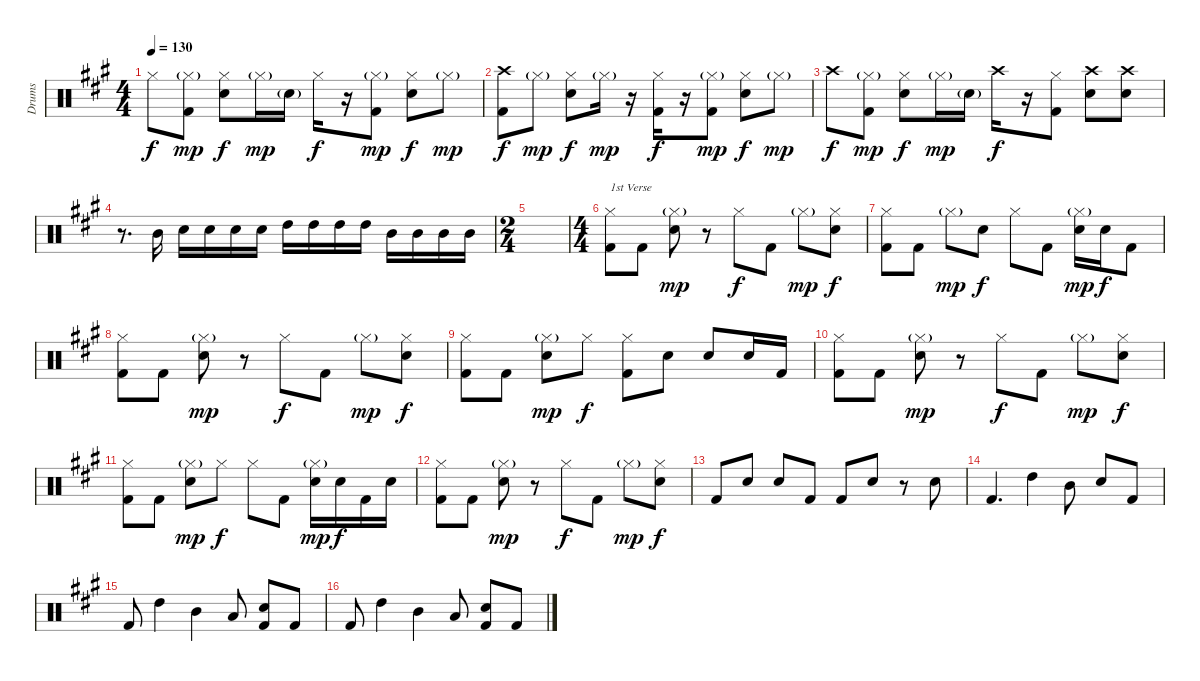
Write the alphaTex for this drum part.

\track ("Drums" "Drums") {instrument percussion}
\staff {score}
\articulation defaults
\ts (4 4)
\tempo 130
\clef neutral
\ks a "Hi-Hat (closed)".8{dy f}
("Hi-Hat (closed)"{g} "Kick (hit) 2").8{dy mp} ("Hi-Hat (closed)" "Electric Snare (hit)").8{dy f} "Hi-Hat (closed)"{g}.16{dy mp} "Electric Snare (hit)"{g}.16 "Hi-Hat (closed)".16{dy f} r.16 ("Hi-Hat (closed)"{g} "Kick (hit) 2").8{dy mp} ("Hi-Hat (closed)" "Electric Snare (hit)").8{dy f} "Hi-Hat (closed)"{g}.8{dy mp} |
("Crash high (hit)" "Kick (hit) 2").8{dy f} "Hi-Hat (closed)"{g}.8{dy mp} ("Hi-Hat (closed)" "Electric Snare (hit)").8{dy f} "Hi-Hat (closed)"{g}.16{dy mp} r.16 ("Hi-Hat (closed)" "Kick (hit) 2").16{dy f} r.16 ("Hi-Hat (closed)"{g} "Kick (hit) 2").8{dy mp} ("Hi-Hat (closed)" "Electric Snare (hit)").8{dy f} "Hi-Hat (closed)"{g}.8{dy mp} |
"Crash high (hit)".8{dy f} ("Hi-Hat (closed)"{g} "Kick (hit) 2").8{dy mp} ("Hi-Hat (closed)" "Electric Snare (hit)").8{dy f} "Hi-Hat (closed)"{g}.16{dy mp} "Electric Snare (hit)"{g}.16 "Crash high (hit)".16{dy f} r.16 ("Hi-Hat (closed)" "Kick (hit) 2").8 ("Crash high (hit)" "Electric Snare (hit)").8 ("Crash high (hit)" "Electric Snare (hit)").8 |
r.8{d} "Mid Tom (hit)".16 "Electric Snare (hit)".16 "Electric Snare (hit)".16 "Electric Snare (hit)".16 "Electric Snare (hit)".16 "High Tom (hit)".16 "High Tom (hit)".16 "High Tom (hit)".16 "High Tom (hit)".16 "Mid Tom (hit)".16 "Mid Tom (hit)".16 "Mid Tom (hit)".16 "Mid Tom (hit)".16 |
\ts (2 4)
|
\ts (4 4)
("Hi-Hat (closed)" "Kick (hit) 2").8{txt "1st Verse"} "Kick (hit) 2".8 ("Hi-Hat (closed)"{g} "Electric Snare (hit)").8{dy mp} r.8 "Hi-Hat (closed)".8{dy f} "Kick (hit) 2".8 "Hi-Hat (closed)"{g}.8{dy mp} ("Electric Snare (hit)" "Hi-Hat (closed)").8{dy f} |
("Hi-Hat (closed)" "Kick (hit) 2").8 "Kick (hit) 2".8 "Hi-Hat (closed)"{g}.8{dy mp} "Electric Snare (hit)".8{dy f} "Hi-Hat (closed)".8 "Kick (hit) 2".8 ("Hi-Hat (closed)"{g} "Electric Snare (hit)").16{dy mp} "Electric Snare (hit)".16{dy f} "Kick (hit) 2".8 |
("Hi-Hat (closed)" "Kick (hit) 2").8 "Kick (hit) 2".8 ("Hi-Hat (closed)"{g} "Electric Snare (hit)").8{dy mp} r.8 "Hi-Hat (closed)".8{dy f} "Kick (hit) 2".8 "Hi-Hat (closed)"{g}.8{dy mp} ("Electric Snare (hit)" "Hi-Hat (closed)").8{dy f} |
("Hi-Hat (closed)" "Kick (hit) 2").8 "Kick (hit) 2".8 ("Hi-Hat (closed)"{g} "Electric Snare (hit)").8{dy mp} "Hi-Hat (closed)".8{dy f} ("Kick (hit) 2" "Hi-Hat (closed)").8 "Electric Snare (hit)".8 "Electric Snare (hit)".8 "Electric Snare (hit)".16 "Kick (hit) 2".16 |
("Hi-Hat (closed)" "Kick (hit) 2").8 "Kick (hit) 2".8 ("Hi-Hat (closed)"{g} "Electric Snare (hit)").8{dy mp} r.8 "Hi-Hat (closed)".8{dy f} "Kick (hit) 2".8 "Hi-Hat (closed)"{g}.8{dy mp} ("Electric Snare (hit)" "Hi-Hat (closed)").8{dy f} |
("Hi-Hat (closed)" "Kick (hit) 2").8 "Kick (hit) 2".8 ("Electric Snare (hit)" "Hi-Hat (closed)"{g}).8{dy mp} "Hi-Hat (closed)".8{dy f} "Hi-Hat (closed)".8 "Kick (hit) 2".8 ("Electric Snare (hit)" "Hi-Hat (closed)"{g}).16{dy mp} "Electric Snare (hit)".16{dy f} "Kick (hit) 2".16 "Electric Snare (hit)".16 |
("Hi-Hat (closed)" "Kick (hit) 2").8 "Kick (hit) 2".8 ("Hi-Hat (closed)"{g} "Electric Snare (hit)").8{dy mp} r.8 "Hi-Hat (closed)".8{dy f} "Kick (hit) 2".8 "Hi-Hat (closed)"{g}.8{dy mp} ("Electric Snare (hit)" "Hi-Hat (closed)").8{dy f} |
"Kick (hit) 2".8 "Electric Snare (hit)".8 "Electric Snare (hit)".8 "Kick (hit) 2".8 "Kick (hit) 2".8 "Electric Snare (hit)".8 r.8 "Electric Snare (hit)".8 |
"Kick (hit) 2".4{d} "High Tom (hit)".4 "Mid Tom (hit)".8 "Electric Snare (hit)".8 "Kick (hit) 2".8 |
"Kick (hit) 2".8 "High Tom (hit)".4 "Mid Tom (hit)".4 "Low Tom (hit)".8 ("Electric Snare (hit)" "Kick (hit) 2").8 "Kick (hit) 2".8 |
"Kick (hit) 2".8 "High Tom (hit)".4 "Mid Tom (hit)".4 "Low Tom (hit)".8 ("Electric Snare (hit)" "Kick (hit) 2").8 "Kick (hit) 2".8
